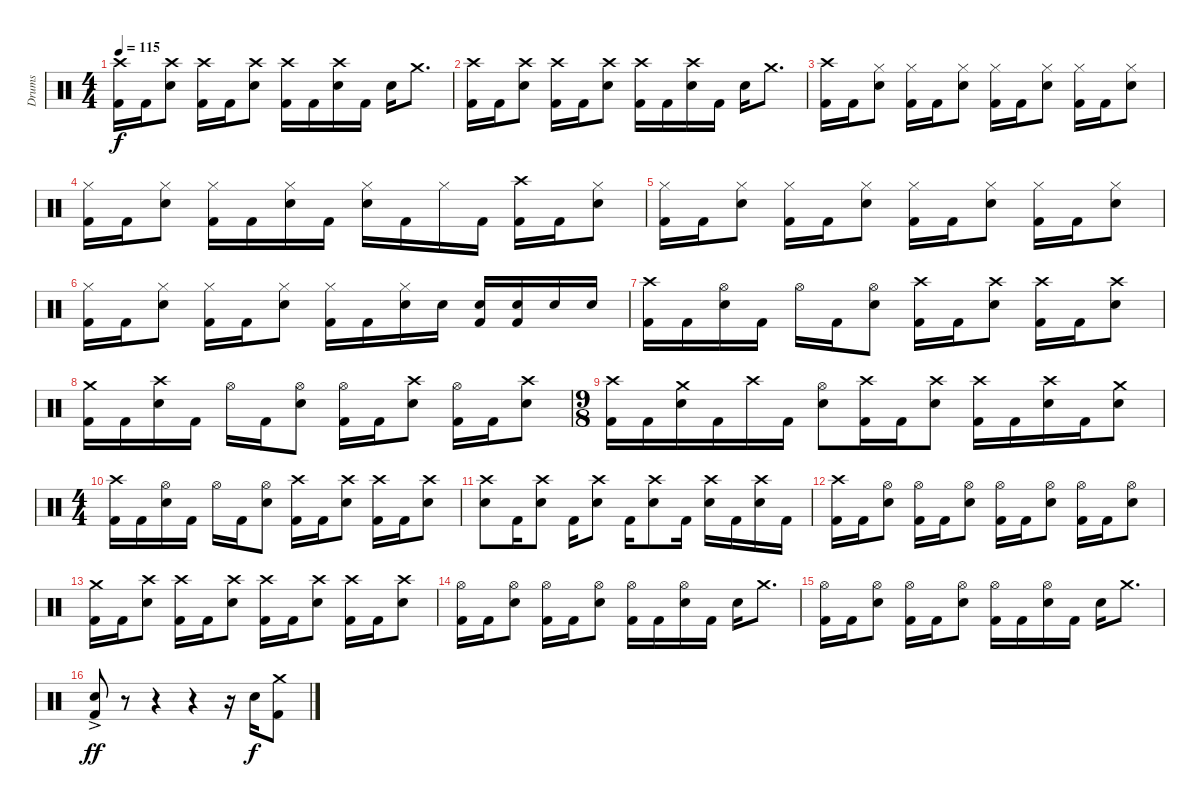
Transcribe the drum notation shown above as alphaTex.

\track ("Drums" "Drums") {instrument percussion}
\staff {score}
\articulation defaults
\ts (4 4)
\tempo 115
\clef neutral
\ks c
("Crash high (hit)" "Kick (hit) 2").16{dy f} "Kick (hit) 2".16 ("Crash high (hit)" "Electric Snare (hit)").8 ("Crash high (hit)" "Kick (hit) 2").16 "Kick (hit) 2".16 ("Crash high (hit)" "Electric Snare (hit)").8 ("Crash high (hit)" "Kick (hit) 2").16 "Kick (hit) 2".16 ("Crash high (hit)" "Electric Snare (hit)").16 "Kick (hit) 2".16 "Electric Snare (hit)".16 "Crash medium (hit)".8{d} |
("Crash high (hit)" "Kick (hit) 2").16 "Kick (hit) 2".16 ("Crash high (hit)" "Electric Snare (hit)").8 ("Crash high (hit)" "Kick (hit) 2").16 "Kick (hit) 2".16 ("Crash high (hit)" "Electric Snare (hit)").8 ("Crash high (hit)" "Kick (hit) 2").16 "Kick (hit) 2".16 ("Crash high (hit)" "Electric Snare (hit)").16 "Kick (hit) 2".16 "Electric Snare (hit)".16 "Crash medium (hit)".8{d} |
("Crash high (hit)" "Kick (hit) 2").16 "Kick (hit) 2".16 ("Hi-Hat (closed)" "Electric Snare (hit)").8 ("Hi-Hat (closed)" "Kick (hit) 2").16 "Kick (hit) 2".16 ("Hi-Hat (closed)" "Electric Snare (hit)").8 ("Hi-Hat (closed)" "Kick (hit) 2").16 "Kick (hit) 2".16 ("Hi-Hat (closed)" "Electric Snare (hit)").8 ("Hi-Hat (closed)" "Kick (hit) 2").16 "Kick (hit) 2".16 ("Hi-Hat (closed)" "Electric Snare (hit)").8 |
("Hi-Hat (closed)" "Kick (hit) 2").16 "Kick (hit) 2".16 ("Hi-Hat (closed)" "Electric Snare (hit)").8 ("Hi-Hat (closed)" "Kick (hit) 2").16 "Kick (hit) 2".16 ("Hi-Hat (closed)" "Electric Snare (hit)").16 "Kick (hit) 2".16 ("Hi-Hat (closed)" "Electric Snare (hit)").16 "Kick (hit) 2".16 "Hi-Hat (closed)".16 "Kick (hit) 2".16 ("Crash high (hit)" "Kick (hit) 2").16 "Kick (hit) 2".16 ("Hi-Hat (closed)" "Electric Snare (hit)").8 |
("Hi-Hat (closed)" "Kick (hit) 2").16 "Kick (hit) 2".16 ("Hi-Hat (closed)" "Electric Snare (hit)").8 ("Hi-Hat (closed)" "Kick (hit) 2").16 "Kick (hit) 2".16 ("Hi-Hat (closed)" "Electric Snare (hit)").8 ("Hi-Hat (closed)" "Kick (hit) 2").16 "Kick (hit) 2".16 ("Hi-Hat (closed)" "Electric Snare (hit)").8 ("Hi-Hat (closed)" "Kick (hit) 2").16 "Kick (hit) 2".16 ("Hi-Hat (closed)" "Electric Snare (hit)").8 |
("Hi-Hat (closed)" "Kick (hit) 2").16 "Kick (hit) 2".16 ("Hi-Hat (closed)" "Electric Snare (hit)").8 ("Hi-Hat (closed)" "Kick (hit) 2").16 "Kick (hit) 2".16 ("Hi-Hat (closed)" "Electric Snare (hit)").8 ("Hi-Hat (closed)" "Kick (hit) 2").16 "Kick (hit) 2".16 ("Hi-Hat (closed)" "Electric Snare (hit)").16 "Electric Snare (hit)".16 ("Electric Snare (hit)" "Kick (hit) 2").16 ("Electric Snare (hit)" "Kick (hit) 2").16 "Electric Snare (hit)".16 "Electric Snare (hit)".16 |
("Crash high (hit)" "Kick (hit) 2").16 "Kick (hit) 2".16 ("Hi-Hat (open)" "Electric Snare (hit)").16 "Kick (hit) 2".16 "Hi-Hat (open)".16 "Kick (hit) 2".16 ("Hi-Hat (open)" "Electric Snare (hit)").8 ("Crash high (hit)" "Kick (hit) 2").16 "Kick (hit) 2".16 ("Crash high (hit)" "Electric Snare (hit)").8 ("Crash high (hit)" "Kick (hit) 2").16 "Kick (hit) 2".16 ("Crash high (hit)" "Electric Snare (hit)").8 |
("Crash medium (hit)" "Kick (hit) 2").16 "Kick (hit) 2".16 ("Crash high (hit)" "Electric Snare (hit)").16 "Kick (hit) 2".16 "Hi-Hat (open)".16 "Kick (hit) 2".16 ("Hi-Hat (open)" "Electric Snare (hit)").8 ("Hi-Hat (open)" "Kick (hit) 2").16 "Kick (hit) 2".16 ("Crash high (hit)" "Electric Snare (hit)").8 ("Hi-Hat (open)" "Kick (hit) 2").16 "Kick (hit) 2".16 ("Crash high (hit)" "Electric Snare (hit)").8 |
\ts (9 8)
("Crash high (hit)" "Kick (hit) 2").16 "Kick (hit) 2".16 ("Crash medium (hit)" "Electric Snare (hit)").16 "Kick (hit) 2".16 "Crash high (hit)".16 "Kick (hit) 2".16 ("Hi-Hat (open)" "Electric Snare (hit)").8 ("Crash high (hit)" "Kick (hit) 2").16 "Kick (hit) 2".16 ("Crash high (hit)" "Electric Snare (hit)").8 ("Crash high (hit)" "Kick (hit) 2").16 "Kick (hit) 2".16 ("Crash high (hit)" "Electric Snare (hit)").16 "Kick (hit) 2".16 ("Crash medium (hit)" "Electric Snare (hit)").8 |
\ts (4 4)
("Crash high (hit)" "Kick (hit) 2").16 "Kick (hit) 2".16 ("Hi-Hat (open)" "Electric Snare (hit)").16 "Kick (hit) 2".16 "Hi-Hat (open)".16 "Kick (hit) 2".16 ("Hi-Hat (open)" "Electric Snare (hit)").8 ("Crash high (hit)" "Kick (hit) 2").16 "Kick (hit) 2".16 ("Crash high (hit)" "Electric Snare (hit)").8 ("Crash high (hit)" "Kick (hit) 2").16 "Kick (hit) 2".16 ("Crash high (hit)" "Electric Snare (hit)").8 |
("Crash high (hit)" "Electric Snare (hit)").8 "Kick (hit) 2".16 ("Crash high (hit)" "Electric Snare (hit)").8 "Kick (hit) 2".16 ("Crash high (hit)" "Electric Snare (hit)").8 "Kick (hit) 2".16 ("Crash high (hit)" "Electric Snare (hit)").8 "Kick (hit) 2".16 ("Crash high (hit)" "Electric Snare (hit)").16 "Kick (hit) 2".16 ("Crash high (hit)" "Electric Snare (hit)").16 "Kick (hit) 2".16 |
("Crash high (hit)" "Kick (hit) 2").16 "Kick (hit) 2".16 ("Hi-Hat (open)" "Electric Snare (hit)").8 ("Hi-Hat (open)" "Kick (hit) 2").16 "Kick (hit) 2".16 ("Hi-Hat (open)" "Electric Snare (hit)").8 ("Hi-Hat (open)" "Kick (hit) 2").16 "Kick (hit) 2".16 ("Hi-Hat (open)" "Electric Snare (hit)").8 ("Hi-Hat (open)" "Kick (hit) 2").16 "Kick (hit) 2".16 ("Hi-Hat (open)" "Electric Snare (hit)").8 |
("Crash medium (hit)" "Kick (hit) 2").16 "Kick (hit) 2".16 ("Crash high (hit)" "Electric Snare (hit)").8 ("Crash high (hit)" "Kick (hit) 2").16 "Kick (hit) 2".16 ("Crash high (hit)" "Electric Snare (hit)").8 ("Crash high (hit)" "Kick (hit) 2").16 "Kick (hit) 2".16 ("Crash high (hit)" "Electric Snare (hit)").8 ("Crash high (hit)" "Kick (hit) 2").16 "Kick (hit) 2".16 ("Crash high (hit)" "Electric Snare (hit)").8 |
("Hi-Hat (open)" "Kick (hit) 2").16 "Kick (hit) 2".16 ("Hi-Hat (open)" "Electric Snare (hit)").8 ("Hi-Hat (open)" "Kick (hit) 2").16 "Kick (hit) 2".16 ("Hi-Hat (open)" "Electric Snare (hit)").8 ("Hi-Hat (open)" "Kick (hit) 2").16 "Kick (hit) 2".16 ("Hi-Hat (open)" "Electric Snare (hit)").16 "Kick (hit) 2".16 "Electric Snare (hit)".16 "Crash medium (hit)".8{d} |
("Hi-Hat (open)" "Kick (hit) 2").16 "Kick (hit) 2".16 ("Hi-Hat (open)" "Electric Snare (hit)").8 ("Hi-Hat (open)" "Kick (hit) 2").16 "Kick (hit) 2".16 ("Hi-Hat (open)" "Electric Snare (hit)").8 ("Hi-Hat (open)" "Kick (hit) 2").16 "Kick (hit) 2".16 ("Hi-Hat (open)" "Electric Snare (hit)").16 "Kick (hit) 2".16 "Electric Snare (hit)".16 "Crash medium (hit)".8{d} |
("Electric Snare (hit)"{ac} "Kick (hit) 2"{ac}).8{dy ff} r.8 r.4 r.4 r.16 "Electric Snare (hit)".16{dy f} ("Crash medium (hit)" "Kick (hit) 2").8
